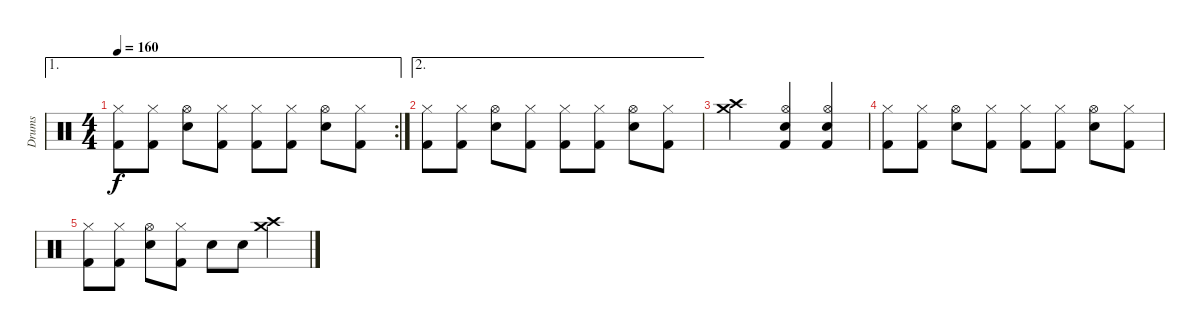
\track ("Drums" "Drums") {instrument percussion}
\staff {score}
\articulation defaults
\ae 1
\rc 2
\ts (4 4)
\tempo 160
\clef neutral
\ks c
("Hi-Hat (closed)" "Kick (hit) 2").8{dy f} ("Hi-Hat (closed)" "Kick (hit) 2").8 ("Hi-Hat (open)" "Snare (hit) 2").8 ("Hi-Hat (closed)" "Kick (hit) 2").8 ("Hi-Hat (closed)" "Kick (hit) 2").8 ("Hi-Hat (closed)" "Kick (hit) 2").8 ("Hi-Hat (open)" "Snare (hit) 2").8 ("Hi-Hat (closed)" "Kick (hit) 2").8 |
\ae 2
("Hi-Hat (closed)" "Kick (hit) 2").8 ("Hi-Hat (closed)" "Kick (hit) 2").8 ("Hi-Hat (open)" "Snare (hit) 2").8 ("Hi-Hat (closed)" "Kick (hit) 2").8 ("Hi-Hat (closed)" "Kick (hit) 2").8 ("Hi-Hat (closed)" "Kick (hit) 2").8 ("Hi-Hat (open)" "Snare (hit) 2").8 ("Hi-Hat (closed)" "Kick (hit) 2").8 |
("Crash medium (hit)" "Crash high (hit)").2 ("Hi-Hat (open)" "Snare (hit) 2" "Kick (hit) 2").4 ("Hi-Hat (open)" "Snare (hit) 2" "Kick (hit) 2").4 |
("Hi-Hat (closed)" "Kick (hit) 2").8 ("Hi-Hat (closed)" "Kick (hit) 2").8 ("Hi-Hat (open)" "Snare (hit) 2").8 ("Hi-Hat (closed)" "Kick (hit) 2").8 ("Hi-Hat (closed)" "Kick (hit) 2").8 ("Hi-Hat (closed)" "Kick (hit) 2").8 ("Hi-Hat (open)" "Snare (hit) 2").8 ("Hi-Hat (closed)" "Kick (hit) 2").8 |
("Hi-Hat (closed)" "Kick (hit) 2").8 ("Hi-Hat (closed)" "Kick (hit) 2").8 ("Hi-Hat (open)" "Snare (hit) 2").8 ("Hi-Hat (closed)" "Kick (hit) 2").8 "Snare (hit) 2".8 "Snare (hit) 2".8 ("Crash medium (hit)" "Crash high (hit)").4
